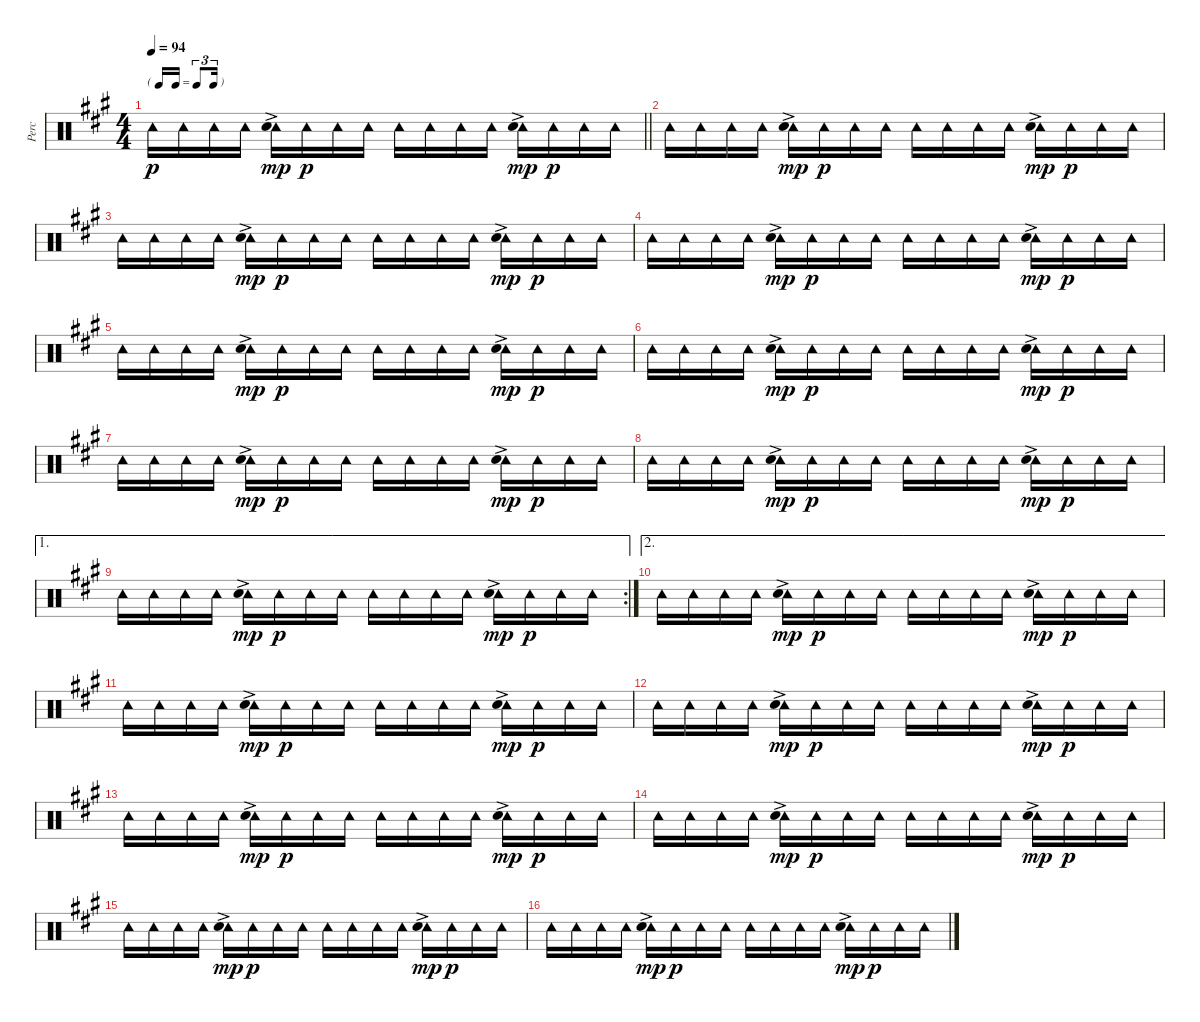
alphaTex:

\track ("Perc" "Perc") {instrument percussion}
\staff {score}
\articulation defaults
\ts (4 4)
\tf triplet16th
\tempo 94
\clef neutral
\barLineRight lightlight
\ks a "Tambourine (hit)".16{dy p} "Tambourine (hit)".16 "Tambourine (hit)".16 "Tambourine (hit)".16
("Tambourine (hit)"{ac} "Hand Clap (hit)").16{dy mp} "Tambourine (hit)".16{dy p} "Tambourine (hit)".16 "Tambourine (hit)".16 "Tambourine (hit)".16 "Tambourine (hit)".16 "Tambourine (hit)".16 "Tambourine (hit)".16 ("Tambourine (hit)"{ac} "Hand Clap (hit)").16{dy mp} "Tambourine (hit)".16{dy p} "Tambourine (hit)".16 "Tambourine (hit)".16 |
"Tambourine (hit)".16 "Tambourine (hit)".16 "Tambourine (hit)".16 "Tambourine (hit)".16 ("Tambourine (hit)"{ac} "Hand Clap (hit)").16{dy mp} "Tambourine (hit)".16{dy p} "Tambourine (hit)".16 "Tambourine (hit)".16 "Tambourine (hit)".16 "Tambourine (hit)".16 "Tambourine (hit)".16 "Tambourine (hit)".16 ("Tambourine (hit)"{ac} "Hand Clap (hit)").16{dy mp} "Tambourine (hit)".16{dy p} "Tambourine (hit)".16 "Tambourine (hit)".16 |
"Tambourine (hit)".16 "Tambourine (hit)".16 "Tambourine (hit)".16 "Tambourine (hit)".16 ("Tambourine (hit)"{ac} "Hand Clap (hit)").16{dy mp} "Tambourine (hit)".16{dy p} "Tambourine (hit)".16 "Tambourine (hit)".16 "Tambourine (hit)".16 "Tambourine (hit)".16 "Tambourine (hit)".16 "Tambourine (hit)".16 ("Tambourine (hit)"{ac} "Hand Clap (hit)").16{dy mp} "Tambourine (hit)".16{dy p} "Tambourine (hit)".16 "Tambourine (hit)".16 |
"Tambourine (hit)".16 "Tambourine (hit)".16 "Tambourine (hit)".16 "Tambourine (hit)".16 ("Tambourine (hit)"{ac} "Hand Clap (hit)").16{dy mp} "Tambourine (hit)".16{dy p} "Tambourine (hit)".16 "Tambourine (hit)".16 "Tambourine (hit)".16 "Tambourine (hit)".16 "Tambourine (hit)".16 "Tambourine (hit)".16 ("Tambourine (hit)"{ac} "Hand Clap (hit)").16{dy mp} "Tambourine (hit)".16{dy p} "Tambourine (hit)".16 "Tambourine (hit)".16 |
"Tambourine (hit)".16 "Tambourine (hit)".16 "Tambourine (hit)".16 "Tambourine (hit)".16 ("Tambourine (hit)"{ac} "Hand Clap (hit)").16{dy mp} "Tambourine (hit)".16{dy p} "Tambourine (hit)".16 "Tambourine (hit)".16 "Tambourine (hit)".16 "Tambourine (hit)".16 "Tambourine (hit)".16 "Tambourine (hit)".16 ("Tambourine (hit)"{ac} "Hand Clap (hit)").16{dy mp} "Tambourine (hit)".16{dy p} "Tambourine (hit)".16 "Tambourine (hit)".16 |
"Tambourine (hit)".16 "Tambourine (hit)".16 "Tambourine (hit)".16 "Tambourine (hit)".16 ("Tambourine (hit)"{ac} "Hand Clap (hit)").16{dy mp} "Tambourine (hit)".16{dy p} "Tambourine (hit)".16 "Tambourine (hit)".16 "Tambourine (hit)".16 "Tambourine (hit)".16 "Tambourine (hit)".16 "Tambourine (hit)".16 ("Tambourine (hit)"{ac} "Hand Clap (hit)").16{dy mp} "Tambourine (hit)".16{dy p} "Tambourine (hit)".16 "Tambourine (hit)".16 |
"Tambourine (hit)".16 "Tambourine (hit)".16 "Tambourine (hit)".16 "Tambourine (hit)".16 ("Tambourine (hit)"{ac} "Hand Clap (hit)").16{dy mp} "Tambourine (hit)".16{dy p} "Tambourine (hit)".16 "Tambourine (hit)".16 "Tambourine (hit)".16 "Tambourine (hit)".16 "Tambourine (hit)".16 "Tambourine (hit)".16 ("Tambourine (hit)"{ac} "Hand Clap (hit)").16{dy mp} "Tambourine (hit)".16{dy p} "Tambourine (hit)".16 "Tambourine (hit)".16 |
"Tambourine (hit)".16 "Tambourine (hit)".16 "Tambourine (hit)".16 "Tambourine (hit)".16 ("Tambourine (hit)"{ac} "Hand Clap (hit)").16{dy mp} "Tambourine (hit)".16{dy p} "Tambourine (hit)".16 "Tambourine (hit)".16 "Tambourine (hit)".16 "Tambourine (hit)".16 "Tambourine (hit)".16 "Tambourine (hit)".16 ("Tambourine (hit)"{ac} "Hand Clap (hit)").16{dy mp} "Tambourine (hit)".16{dy p} "Tambourine (hit)".16 "Tambourine (hit)".16 |
\ae 1
\rc 2 "Tambourine (hit)".16 "Tambourine (hit)".16 "Tambourine (hit)".16 "Tambourine (hit)".16
("Tambourine (hit)"{ac} "Hand Clap (hit)").16{dy mp} "Tambourine (hit)".16{dy p} "Tambourine (hit)".16 "Tambourine (hit)".16 "Tambourine (hit)".16 "Tambourine (hit)".16 "Tambourine (hit)".16 "Tambourine (hit)".16 ("Tambourine (hit)"{ac} "Hand Clap (hit)").16{dy mp} "Tambourine (hit)".16{dy p} "Tambourine (hit)".16 "Tambourine (hit)".16 |
\ae 2 "Tambourine (hit)".16 "Tambourine (hit)".16 "Tambourine (hit)".16 "Tambourine (hit)".16
("Tambourine (hit)"{ac} "Hand Clap (hit)").16{dy mp} "Tambourine (hit)".16{dy p} "Tambourine (hit)".16 "Tambourine (hit)".16 "Tambourine (hit)".16 "Tambourine (hit)".16 "Tambourine (hit)".16 "Tambourine (hit)".16 ("Tambourine (hit)"{ac} "Hand Clap (hit)").16{dy mp} "Tambourine (hit)".16{dy p} "Tambourine (hit)".16 "Tambourine (hit)".16 |
"Tambourine (hit)".16 "Tambourine (hit)".16 "Tambourine (hit)".16 "Tambourine (hit)".16 ("Tambourine (hit)"{ac} "Hand Clap (hit)").16{dy mp} "Tambourine (hit)".16{dy p} "Tambourine (hit)".16 "Tambourine (hit)".16 "Tambourine (hit)".16 "Tambourine (hit)".16 "Tambourine (hit)".16 "Tambourine (hit)".16 ("Tambourine (hit)"{ac} "Hand Clap (hit)").16{dy mp} "Tambourine (hit)".16{dy p} "Tambourine (hit)".16 "Tambourine (hit)".16 |
"Tambourine (hit)".16 "Tambourine (hit)".16 "Tambourine (hit)".16 "Tambourine (hit)".16 ("Tambourine (hit)"{ac} "Hand Clap (hit)").16{dy mp} "Tambourine (hit)".16{dy p} "Tambourine (hit)".16 "Tambourine (hit)".16 "Tambourine (hit)".16 "Tambourine (hit)".16 "Tambourine (hit)".16 "Tambourine (hit)".16 ("Tambourine (hit)"{ac} "Hand Clap (hit)").16{dy mp} "Tambourine (hit)".16{dy p} "Tambourine (hit)".16 "Tambourine (hit)".16 |
"Tambourine (hit)".16 "Tambourine (hit)".16 "Tambourine (hit)".16 "Tambourine (hit)".16 ("Tambourine (hit)"{ac} "Hand Clap (hit)").16{dy mp} "Tambourine (hit)".16{dy p} "Tambourine (hit)".16 "Tambourine (hit)".16 "Tambourine (hit)".16 "Tambourine (hit)".16 "Tambourine (hit)".16 "Tambourine (hit)".16 ("Tambourine (hit)"{ac} "Hand Clap (hit)").16{dy mp} "Tambourine (hit)".16{dy p} "Tambourine (hit)".16 "Tambourine (hit)".16 |
"Tambourine (hit)".16 "Tambourine (hit)".16 "Tambourine (hit)".16 "Tambourine (hit)".16 ("Tambourine (hit)"{ac} "Hand Clap (hit)").16{dy mp} "Tambourine (hit)".16{dy p} "Tambourine (hit)".16 "Tambourine (hit)".16 "Tambourine (hit)".16 "Tambourine (hit)".16 "Tambourine (hit)".16 "Tambourine (hit)".16 ("Tambourine (hit)"{ac} "Hand Clap (hit)").16{dy mp} "Tambourine (hit)".16{dy p} "Tambourine (hit)".16 "Tambourine (hit)".16 |
"Tambourine (hit)".16 "Tambourine (hit)".16 "Tambourine (hit)".16 "Tambourine (hit)".16 ("Tambourine (hit)"{ac} "Hand Clap (hit)").16{dy mp} "Tambourine (hit)".16{dy p} "Tambourine (hit)".16 "Tambourine (hit)".16 "Tambourine (hit)".16 "Tambourine (hit)".16 "Tambourine (hit)".16 "Tambourine (hit)".16 ("Tambourine (hit)"{ac} "Hand Clap (hit)").16{dy mp} "Tambourine (hit)".16{dy p} "Tambourine (hit)".16 "Tambourine (hit)".16 |
"Tambourine (hit)".16 "Tambourine (hit)".16 "Tambourine (hit)".16 "Tambourine (hit)".16 ("Tambourine (hit)"{ac} "Hand Clap (hit)").16{dy mp} "Tambourine (hit)".16{dy p} "Tambourine (hit)".16 "Tambourine (hit)".16 "Tambourine (hit)".16 "Tambourine (hit)".16 "Tambourine (hit)".16 "Tambourine (hit)".16 ("Tambourine (hit)"{ac} "Hand Clap (hit)").16{dy mp} "Tambourine (hit)".16{dy p} "Tambourine (hit)".16 "Tambourine (hit)".16
